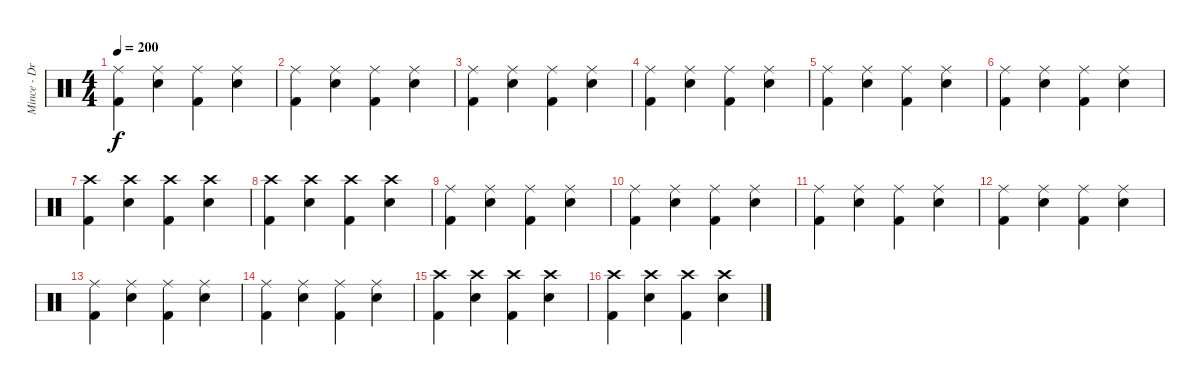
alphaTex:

\track ("Mince - Drums" "Mince - Dr") {instrument percussion}
\staff {score}
\articulation defaults
\ts (4 4)
\tempo 200
\clef neutral
\ks c
("Ride (middle)" "Kick (hit) 2").4{dy f} ("Ride (middle)" "Electric Snare (hit)").4 ("Ride (middle)" "Kick (hit) 2").4 ("Ride (middle)" "Electric Snare (hit)").4 |
("Ride (middle)" "Kick (hit) 2").4 ("Ride (middle)" "Electric Snare (hit)").4 ("Ride (middle)" "Kick (hit) 2").4 ("Ride (middle)" "Electric Snare (hit)").4 |
("Ride (middle)" "Kick (hit) 2").4 ("Ride (middle)" "Electric Snare (hit)").4 ("Ride (middle)" "Kick (hit) 2").4 ("Ride (middle)" "Electric Snare (hit)").4 |
("Ride (middle)" "Kick (hit) 2").4 ("Ride (middle)" "Electric Snare (hit)").4 ("Ride (middle)" "Kick (hit) 2").4 ("Ride (middle)" "Electric Snare (hit)").4 |
("Ride (middle)" "Kick (hit) 2").4 ("Ride (middle)" "Electric Snare (hit)").4 ("Ride (middle)" "Kick (hit) 2").4 ("Ride (middle)" "Electric Snare (hit)").4 |
("Ride (middle)" "Kick (hit) 2").4 ("Ride (middle)" "Electric Snare (hit)").4 ("Ride (middle)" "Kick (hit) 2").4 ("Ride (middle)" "Electric Snare (hit)").4 |
("Crash high (hit)" "Kick (hit) 2").4 ("Crash high (hit)" "Electric Snare (hit)").4 ("Crash high (hit)" "Kick (hit) 2").4 ("Crash high (hit)" "Electric Snare (hit)").4 |
("Crash high (hit)" "Kick (hit) 2").4 ("Crash high (hit)" "Electric Snare (hit)").4 ("Crash high (hit)" "Kick (hit) 2").4 ("Crash high (hit)" "Electric Snare (hit)").4 |
("Ride (middle)" "Kick (hit) 2").4 ("Ride (middle)" "Electric Snare (hit)").4 ("Ride (middle)" "Kick (hit) 2").4 ("Ride (middle)" "Electric Snare (hit)").4 |
("Ride (middle)" "Kick (hit) 2").4 ("Ride (middle)" "Electric Snare (hit)").4 ("Ride (middle)" "Kick (hit) 2").4 ("Ride (middle)" "Electric Snare (hit)").4 |
("Ride (middle)" "Kick (hit) 2").4 ("Ride (middle)" "Electric Snare (hit)").4 ("Ride (middle)" "Kick (hit) 2").4 ("Ride (middle)" "Electric Snare (hit)").4 |
("Ride (middle)" "Kick (hit) 2").4 ("Ride (middle)" "Electric Snare (hit)").4 ("Ride (middle)" "Kick (hit) 2").4 ("Ride (middle)" "Electric Snare (hit)").4 |
("Ride (middle)" "Kick (hit) 2").4 ("Ride (middle)" "Electric Snare (hit)").4 ("Ride (middle)" "Kick (hit) 2").4 ("Ride (middle)" "Electric Snare (hit)").4 |
("Ride (middle)" "Kick (hit) 2").4 ("Ride (middle)" "Electric Snare (hit)").4 ("Ride (middle)" "Kick (hit) 2").4 ("Ride (middle)" "Electric Snare (hit)").4 |
("Crash high (hit)" "Kick (hit) 2").4 ("Crash high (hit)" "Electric Snare (hit)").4 ("Crash high (hit)" "Kick (hit) 2").4 ("Crash high (hit)" "Electric Snare (hit)").4 |
("Crash high (hit)" "Kick (hit) 2").4 ("Crash high (hit)" "Electric Snare (hit)").4 ("Crash high (hit)" "Kick (hit) 2").4 ("Crash high (hit)" "Electric Snare (hit)").4
